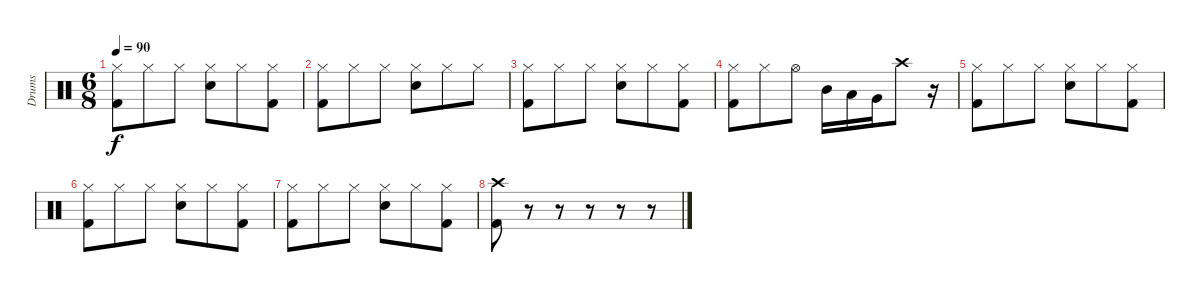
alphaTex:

\track ("Drums" "Drums") {instrument percussion}
\staff {score}
\articulation defaults
\ts (6 8)
\tempo 90
\clef neutral
\ks c
("Hi-Hat (closed)" "Kick (hit) 2").8{dy f} "Hi-Hat (closed)".8 "Hi-Hat (closed)".8 ("Hi-Hat (closed)" "Electric Snare (hit)").8 "Hi-Hat (closed)".8 ("Hi-Hat (closed)" "Kick (hit) 2").8 |
("Hi-Hat (closed)" "Kick (hit) 2").8 "Hi-Hat (closed)".8 "Hi-Hat (closed)".8 ("Hi-Hat (closed)" "Electric Snare (hit)").8 "Hi-Hat (closed)".8 "Hi-Hat (closed)".8 |
("Hi-Hat (closed)" "Kick (hit) 2").8 "Hi-Hat (closed)".8 "Hi-Hat (closed)".8 ("Hi-Hat (closed)" "Electric Snare (hit)").8 "Hi-Hat (closed)".8 ("Hi-Hat (closed)" "Kick (hit) 2").8 |
("Hi-Hat (closed)" "Kick (hit) 2").8 "Hi-Hat (closed)".8 "Hi-Hat (open)".8 "Mid Tom (hit)".16 "Low Tom (hit)".16 "Very Low Tom (hit)".16 "Crash high (hit)".8 r.16 |
("Hi-Hat (closed)" "Kick (hit) 2").8 "Hi-Hat (closed)".8 "Hi-Hat (closed)".8 ("Hi-Hat (closed)" "Electric Snare (hit)").8 "Hi-Hat (closed)".8 ("Hi-Hat (closed)" "Kick (hit) 2").8 |
("Hi-Hat (closed)" "Kick (hit) 2").8 "Hi-Hat (closed)".8 "Hi-Hat (closed)".8 ("Hi-Hat (closed)" "Electric Snare (hit)").8 "Hi-Hat (closed)".8 ("Hi-Hat (closed)" "Kick (hit) 2").8 |
("Hi-Hat (closed)" "Kick (hit) 2").8 "Hi-Hat (closed)".8 "Hi-Hat (closed)".8 ("Hi-Hat (closed)" "Electric Snare (hit)").8 "Hi-Hat (closed)".8 ("Hi-Hat (closed)" "Kick (hit) 2").8 |
("Crash high (hit)" "Kick (hit) 2").8 r.8 r.8 r.8 r.8 r.8
